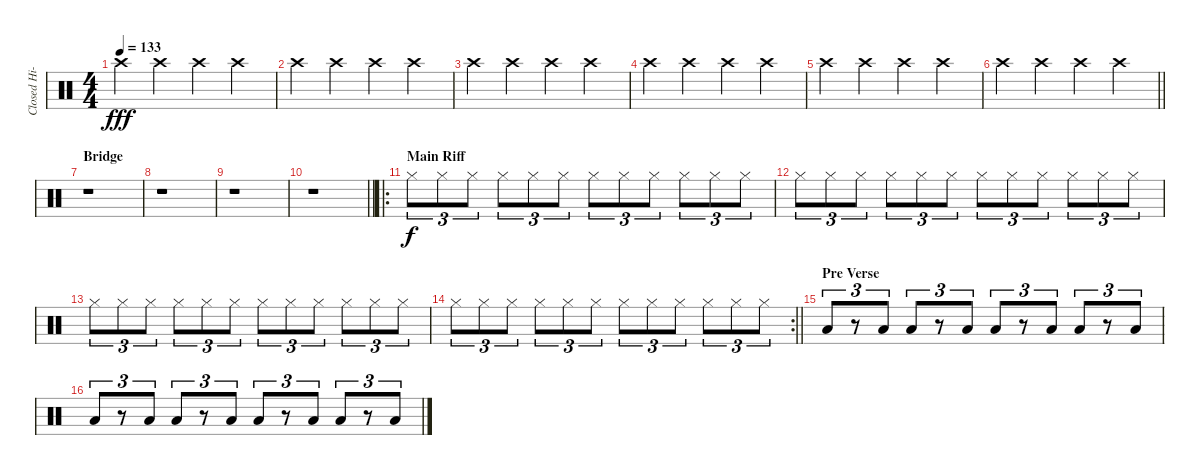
\track ("Closed Hi-hat/Synth" "Closed Hi-") {instrument percussion}
\staff {score}
\articulation defaults
\ts (4 4)
\tempo 133
\clef neutral
\ks c "Crash high (hit)".4{dy fff} "Crash high (hit)".4 "Crash high (hit)".4 "Crash high (hit)".4
|
"Crash high (hit)".4 "Crash high (hit)".4 "Crash high (hit)".4 "Crash high (hit)".4 |
"Crash high (hit)".4 "Crash high (hit)".4 "Crash high (hit)".4 "Crash high (hit)".4 |
"Crash high (hit)".4 "Crash high (hit)".4 "Crash high (hit)".4 "Crash high (hit)".4 |
"Crash high (hit)".4 "Crash high (hit)".4 "Crash high (hit)".4 "Crash high (hit)".4 |
\barLineRight lightlight "Crash high (hit)".4 "Crash high (hit)".4 "Crash high (hit)".4 "Crash high (hit)".4
|
\section ("" "Bridge ")
r.1 |
r.1 |
r.1 |
\barLineRight lightlight
r.1 |
\ro
\section ("" "Main Riff")
"Hi-Hat (closed)".8{tu (3 2) dy f} "Hi-Hat (closed)".8{tu (3 2)} "Hi-Hat (closed)".8{tu (3 2)} "Hi-Hat (closed)".8{tu (3 2)} "Hi-Hat (closed)".8{tu (3 2)} "Hi-Hat (closed)".8{tu (3 2)} "Hi-Hat (closed)".8{tu (3 2)} "Hi-Hat (closed)".8{tu (3 2)} "Hi-Hat (closed)".8{tu (3 2)} "Hi-Hat (closed)".8{tu (3 2)} "Hi-Hat (closed)".8{tu (3 2)} "Hi-Hat (closed)".8{tu (3 2)} |
"Hi-Hat (closed)".8{tu (3 2)} "Hi-Hat (closed)".8{tu (3 2)} "Hi-Hat (closed)".8{tu (3 2)} "Hi-Hat (closed)".8{tu (3 2)} "Hi-Hat (closed)".8{tu (3 2)} "Hi-Hat (closed)".8{tu (3 2)} "Hi-Hat (closed)".8{tu (3 2)} "Hi-Hat (closed)".8{tu (3 2)} "Hi-Hat (closed)".8{tu (3 2)} "Hi-Hat (closed)".8{tu (3 2)} "Hi-Hat (closed)".8{tu (3 2)} "Hi-Hat (closed)".8{tu (3 2)} |
"Hi-Hat (closed)".8{tu (3 2)} "Hi-Hat (closed)".8{tu (3 2)} "Hi-Hat (closed)".8{tu (3 2)} "Hi-Hat (closed)".8{tu (3 2)} "Hi-Hat (closed)".8{tu (3 2)} "Hi-Hat (closed)".8{tu (3 2)} "Hi-Hat (closed)".8{tu (3 2)} "Hi-Hat (closed)".8{tu (3 2)} "Hi-Hat (closed)".8{tu (3 2)} "Hi-Hat (closed)".8{tu (3 2)} "Hi-Hat (closed)".8{tu (3 2)} "Hi-Hat (closed)".8{tu (3 2)} |
\rc 2
\barLineRight lightlight "Hi-Hat (closed)".8{tu (3 2)} "Hi-Hat (closed)".8{tu (3 2)} "Hi-Hat (closed)".8{tu (3 2)} "Hi-Hat (closed)".8{tu (3 2)} "Hi-Hat (closed)".8{tu (3 2)} "Hi-Hat (closed)".8{tu (3 2)} "Hi-Hat (closed)".8{tu (3 2)} "Hi-Hat (closed)".8{tu (3 2)} "Hi-Hat (closed)".8{tu (3 2)} "Hi-Hat (closed)".8{tu (3 2)} "Hi-Hat (closed)".8{tu (3 2)} "Hi-Hat (closed)".8{tu (3 2)}
|
\section ("" "Pre Verse")
"Low Floor Tom (hit)".8{tu (3 2)} r.8{tu (3 2)} "Low Floor Tom (hit)".8{tu (3 2)} "Low Floor Tom (hit)".8{tu (3 2)} r.8{tu (3 2)} "Low Floor Tom (hit)".8{tu (3 2)} "Low Floor Tom (hit)".8{tu (3 2)} r.8{tu (3 2)} "Low Floor Tom (hit)".8{tu (3 2)} "Low Floor Tom (hit)".8{tu (3 2)} r.8{tu (3 2)} "Low Floor Tom (hit)".8{tu (3 2)} |
"Low Floor Tom (hit)".8{tu (3 2)} r.8{tu (3 2)} "Low Floor Tom (hit)".8{tu (3 2)} "Low Floor Tom (hit)".8{tu (3 2)} r.8{tu (3 2)} "Low Floor Tom (hit)".8{tu (3 2)} "Low Floor Tom (hit)".8{tu (3 2)} r.8{tu (3 2)} "Low Floor Tom (hit)".8{tu (3 2)} "Low Floor Tom (hit)".8{tu (3 2)} r.8{tu (3 2)} "Low Floor Tom (hit)".8{tu (3 2)}
